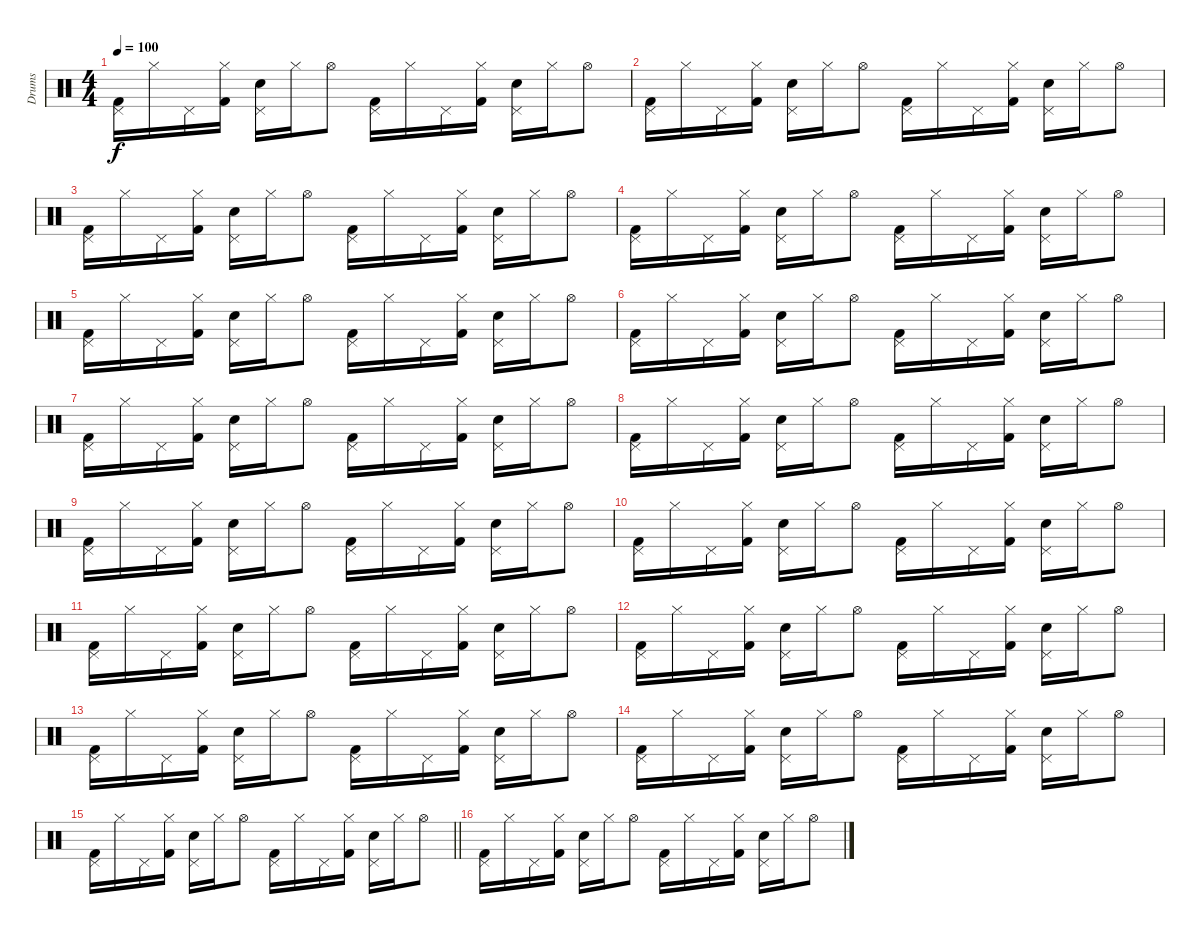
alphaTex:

\track ("Drums" "Drums") {instrument percussion}
\staff {score}
\articulation defaults
\ts (4 4)
\tempo 100
\clef neutral
\ks c
("Pedal Hi-Hat (hit)" "Kick (hit) 2").16{dy f} "Hi-Hat (closed)".16 "Pedal Hi-Hat (hit)".16 ("Hi-Hat (closed)" "Kick (hit) 2").16 ("Pedal Hi-Hat (hit)" "Electric Snare (hit)").16 "Hi-Hat (closed)".16 "Hi-Hat (open)".8 ("Pedal Hi-Hat (hit)" "Kick (hit) 2").16 "Hi-Hat (closed)".16 "Pedal Hi-Hat (hit)".16 ("Hi-Hat (closed)" "Kick (hit) 2").16 ("Pedal Hi-Hat (hit)" "Electric Snare (hit)").16 "Hi-Hat (closed)".16 "Hi-Hat (open)".8 |
("Pedal Hi-Hat (hit)" "Kick (hit) 2").16 "Hi-Hat (closed)".16 "Pedal Hi-Hat (hit)".16 ("Hi-Hat (closed)" "Kick (hit) 2").16 ("Pedal Hi-Hat (hit)" "Electric Snare (hit)").16 "Hi-Hat (closed)".16 "Hi-Hat (open)".8 ("Pedal Hi-Hat (hit)" "Kick (hit) 2").16 "Hi-Hat (closed)".16 "Pedal Hi-Hat (hit)".16 ("Hi-Hat (closed)" "Kick (hit) 2").16 ("Pedal Hi-Hat (hit)" "Electric Snare (hit)").16 "Hi-Hat (closed)".16 "Hi-Hat (open)".8 |
("Pedal Hi-Hat (hit)" "Kick (hit) 2").16 "Hi-Hat (closed)".16 "Pedal Hi-Hat (hit)".16 ("Hi-Hat (closed)" "Kick (hit) 2").16 ("Pedal Hi-Hat (hit)" "Electric Snare (hit)").16 "Hi-Hat (closed)".16 "Hi-Hat (open)".8 ("Pedal Hi-Hat (hit)" "Kick (hit) 2").16 "Hi-Hat (closed)".16 "Pedal Hi-Hat (hit)".16 ("Hi-Hat (closed)" "Kick (hit) 2").16 ("Pedal Hi-Hat (hit)" "Electric Snare (hit)").16 "Hi-Hat (closed)".16 "Hi-Hat (open)".8 |
("Pedal Hi-Hat (hit)" "Kick (hit) 2").16 "Hi-Hat (closed)".16 "Pedal Hi-Hat (hit)".16 ("Hi-Hat (closed)" "Kick (hit) 2").16 ("Pedal Hi-Hat (hit)" "Electric Snare (hit)").16 "Hi-Hat (closed)".16 "Hi-Hat (open)".8 ("Pedal Hi-Hat (hit)" "Kick (hit) 2").16 "Hi-Hat (closed)".16 "Pedal Hi-Hat (hit)".16 ("Hi-Hat (closed)" "Kick (hit) 2").16 ("Pedal Hi-Hat (hit)" "Electric Snare (hit)").16 "Hi-Hat (closed)".16 "Hi-Hat (open)".8 |
("Pedal Hi-Hat (hit)" "Kick (hit) 2").16 "Hi-Hat (closed)".16 "Pedal Hi-Hat (hit)".16 ("Hi-Hat (closed)" "Kick (hit) 2").16 ("Pedal Hi-Hat (hit)" "Electric Snare (hit)").16 "Hi-Hat (closed)".16 "Hi-Hat (open)".8 ("Pedal Hi-Hat (hit)" "Kick (hit) 2").16 "Hi-Hat (closed)".16 "Pedal Hi-Hat (hit)".16 ("Hi-Hat (closed)" "Kick (hit) 2").16 ("Pedal Hi-Hat (hit)" "Electric Snare (hit)").16 "Hi-Hat (closed)".16 "Hi-Hat (open)".8 |
("Pedal Hi-Hat (hit)" "Kick (hit) 2").16 "Hi-Hat (closed)".16 "Pedal Hi-Hat (hit)".16 ("Hi-Hat (closed)" "Kick (hit) 2").16 ("Pedal Hi-Hat (hit)" "Electric Snare (hit)").16 "Hi-Hat (closed)".16 "Hi-Hat (open)".8 ("Pedal Hi-Hat (hit)" "Kick (hit) 2").16 "Hi-Hat (closed)".16 "Pedal Hi-Hat (hit)".16 ("Hi-Hat (closed)" "Kick (hit) 2").16 ("Pedal Hi-Hat (hit)" "Electric Snare (hit)").16 "Hi-Hat (closed)".16 "Hi-Hat (open)".8 |
("Pedal Hi-Hat (hit)" "Kick (hit) 2").16 "Hi-Hat (closed)".16 "Pedal Hi-Hat (hit)".16 ("Hi-Hat (closed)" "Kick (hit) 2").16 ("Pedal Hi-Hat (hit)" "Electric Snare (hit)").16 "Hi-Hat (closed)".16 "Hi-Hat (open)".8 ("Pedal Hi-Hat (hit)" "Kick (hit) 2").16 "Hi-Hat (closed)".16 "Pedal Hi-Hat (hit)".16 ("Hi-Hat (closed)" "Kick (hit) 2").16 ("Pedal Hi-Hat (hit)" "Electric Snare (hit)").16 "Hi-Hat (closed)".16 "Hi-Hat (open)".8 |
("Pedal Hi-Hat (hit)" "Kick (hit) 2").16 "Hi-Hat (closed)".16 "Pedal Hi-Hat (hit)".16 ("Hi-Hat (closed)" "Kick (hit) 2").16 ("Pedal Hi-Hat (hit)" "Electric Snare (hit)").16 "Hi-Hat (closed)".16 "Hi-Hat (open)".8 ("Pedal Hi-Hat (hit)" "Kick (hit) 2").16 "Hi-Hat (closed)".16 "Pedal Hi-Hat (hit)".16 ("Hi-Hat (closed)" "Kick (hit) 2").16 ("Pedal Hi-Hat (hit)" "Electric Snare (hit)").16 "Hi-Hat (closed)".16 "Hi-Hat (open)".8 |
("Pedal Hi-Hat (hit)" "Kick (hit) 2").16 "Hi-Hat (closed)".16 "Pedal Hi-Hat (hit)".16 ("Hi-Hat (closed)" "Kick (hit) 2").16 ("Pedal Hi-Hat (hit)" "Electric Snare (hit)").16 "Hi-Hat (closed)".16 "Hi-Hat (open)".8 ("Pedal Hi-Hat (hit)" "Kick (hit) 2").16 "Hi-Hat (closed)".16 "Pedal Hi-Hat (hit)".16 ("Hi-Hat (closed)" "Kick (hit) 2").16 ("Pedal Hi-Hat (hit)" "Electric Snare (hit)").16 "Hi-Hat (closed)".16 "Hi-Hat (open)".8 |
("Pedal Hi-Hat (hit)" "Kick (hit) 2").16 "Hi-Hat (closed)".16 "Pedal Hi-Hat (hit)".16 ("Hi-Hat (closed)" "Kick (hit) 2").16 ("Pedal Hi-Hat (hit)" "Electric Snare (hit)").16 "Hi-Hat (closed)".16 "Hi-Hat (open)".8 ("Pedal Hi-Hat (hit)" "Kick (hit) 2").16 "Hi-Hat (closed)".16 "Pedal Hi-Hat (hit)".16 ("Hi-Hat (closed)" "Kick (hit) 2").16 ("Pedal Hi-Hat (hit)" "Electric Snare (hit)").16 "Hi-Hat (closed)".16 "Hi-Hat (open)".8 |
("Pedal Hi-Hat (hit)" "Kick (hit) 2").16 "Hi-Hat (closed)".16 "Pedal Hi-Hat (hit)".16 ("Hi-Hat (closed)" "Kick (hit) 2").16 ("Pedal Hi-Hat (hit)" "Electric Snare (hit)").16 "Hi-Hat (closed)".16 "Hi-Hat (open)".8 ("Pedal Hi-Hat (hit)" "Kick (hit) 2").16 "Hi-Hat (closed)".16 "Pedal Hi-Hat (hit)".16 ("Hi-Hat (closed)" "Kick (hit) 2").16 ("Pedal Hi-Hat (hit)" "Electric Snare (hit)").16 "Hi-Hat (closed)".16 "Hi-Hat (open)".8 |
("Pedal Hi-Hat (hit)" "Kick (hit) 2").16 "Hi-Hat (closed)".16 "Pedal Hi-Hat (hit)".16 ("Hi-Hat (closed)" "Kick (hit) 2").16 ("Pedal Hi-Hat (hit)" "Electric Snare (hit)").16 "Hi-Hat (closed)".16 "Hi-Hat (open)".8 ("Pedal Hi-Hat (hit)" "Kick (hit) 2").16 "Hi-Hat (closed)".16 "Pedal Hi-Hat (hit)".16 ("Hi-Hat (closed)" "Kick (hit) 2").16 ("Pedal Hi-Hat (hit)" "Electric Snare (hit)").16 "Hi-Hat (closed)".16 "Hi-Hat (open)".8 |
("Pedal Hi-Hat (hit)" "Kick (hit) 2").16 "Hi-Hat (closed)".16 "Pedal Hi-Hat (hit)".16 ("Hi-Hat (closed)" "Kick (hit) 2").16 ("Pedal Hi-Hat (hit)" "Electric Snare (hit)").16 "Hi-Hat (closed)".16 "Hi-Hat (open)".8 ("Pedal Hi-Hat (hit)" "Kick (hit) 2").16 "Hi-Hat (closed)".16 "Pedal Hi-Hat (hit)".16 ("Hi-Hat (closed)" "Kick (hit) 2").16 ("Pedal Hi-Hat (hit)" "Electric Snare (hit)").16 "Hi-Hat (closed)".16 "Hi-Hat (open)".8 |
("Pedal Hi-Hat (hit)" "Kick (hit) 2").16 "Hi-Hat (closed)".16 "Pedal Hi-Hat (hit)".16 ("Hi-Hat (closed)" "Kick (hit) 2").16 ("Pedal Hi-Hat (hit)" "Electric Snare (hit)").16 "Hi-Hat (closed)".16 "Hi-Hat (open)".8 ("Pedal Hi-Hat (hit)" "Kick (hit) 2").16 "Hi-Hat (closed)".16 "Pedal Hi-Hat (hit)".16 ("Hi-Hat (closed)" "Kick (hit) 2").16 ("Pedal Hi-Hat (hit)" "Electric Snare (hit)").16 "Hi-Hat (closed)".16 "Hi-Hat (open)".8 |
\barLineRight lightlight
("Pedal Hi-Hat (hit)" "Kick (hit) 2").16 "Hi-Hat (closed)".16 "Pedal Hi-Hat (hit)".16 ("Hi-Hat (closed)" "Kick (hit) 2").16 ("Pedal Hi-Hat (hit)" "Electric Snare (hit)").16 "Hi-Hat (closed)".16 "Hi-Hat (open)".8 ("Pedal Hi-Hat (hit)" "Kick (hit) 2").16 "Hi-Hat (closed)".16 "Pedal Hi-Hat (hit)".16 ("Hi-Hat (closed)" "Kick (hit) 2").16 ("Pedal Hi-Hat (hit)" "Electric Snare (hit)").16 "Hi-Hat (closed)".16 "Hi-Hat (open)".8 |
("Pedal Hi-Hat (hit)" "Kick (hit) 2").16 "Hi-Hat (closed)".16 "Pedal Hi-Hat (hit)".16 ("Hi-Hat (closed)" "Kick (hit) 2").16 ("Pedal Hi-Hat (hit)" "Electric Snare (hit)").16 "Hi-Hat (closed)".16 "Hi-Hat (open)".8 ("Pedal Hi-Hat (hit)" "Kick (hit) 2").16 "Hi-Hat (closed)".16 "Pedal Hi-Hat (hit)".16 ("Hi-Hat (closed)" "Kick (hit) 2").16 ("Pedal Hi-Hat (hit)" "Electric Snare (hit)").16 "Hi-Hat (closed)".16 "Hi-Hat (open)".8
